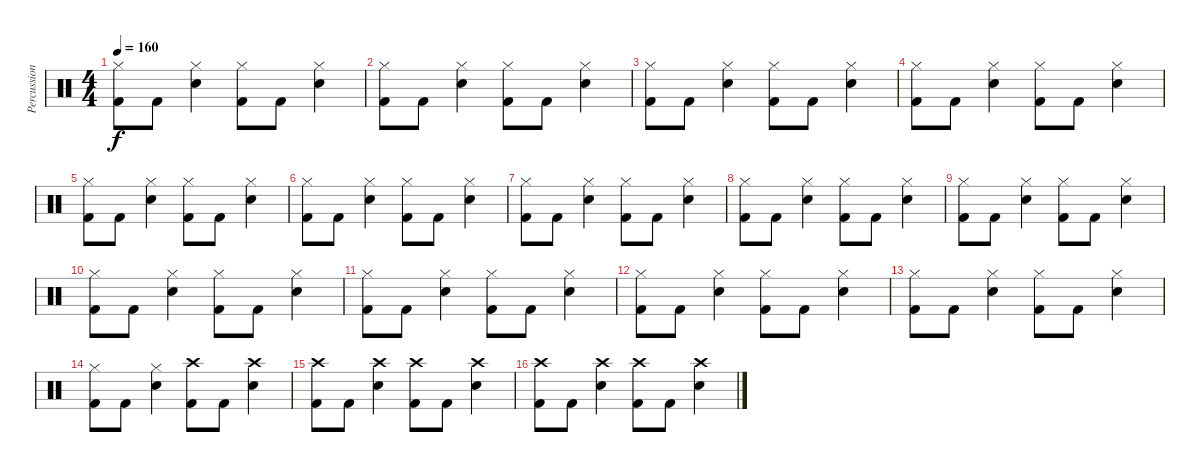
\track ("Percussioni" "Percussion") {instrument percussion}
\staff {score}
\articulation defaults
\ts (4 4)
\tempo 160
\clef neutral
\ks c
("Hi-Hat (closed)" "Kick (hit) 2").8{dy f} "Kick (hit) 2".8 ("Hi-Hat (closed)" "Snare (hit) 2").4 ("Hi-Hat (closed)" "Kick (hit) 2").8 "Kick (hit) 2".8 ("Hi-Hat (closed)" "Snare (hit) 2").4 |
("Hi-Hat (closed)" "Kick (hit) 2").8 "Kick (hit) 2".8 ("Hi-Hat (closed)" "Snare (hit) 2").4 ("Hi-Hat (closed)" "Kick (hit) 2").8 "Kick (hit) 2".8 ("Hi-Hat (closed)" "Snare (hit) 2").4 |
("Hi-Hat (closed)" "Kick (hit) 2").8 "Kick (hit) 2".8 ("Hi-Hat (closed)" "Snare (hit) 2").4 ("Hi-Hat (closed)" "Kick (hit) 2").8 "Kick (hit) 2".8 ("Hi-Hat (closed)" "Snare (hit) 2").4 |
("Hi-Hat (closed)" "Kick (hit) 2").8 "Kick (hit) 2".8 ("Hi-Hat (closed)" "Snare (hit) 2").4 ("Hi-Hat (closed)" "Kick (hit) 2").8 "Kick (hit) 2".8 ("Hi-Hat (closed)" "Snare (hit) 2").4 |
("Hi-Hat (closed)" "Kick (hit) 2").8 "Kick (hit) 2".8 ("Hi-Hat (closed)" "Snare (hit) 2").4 ("Hi-Hat (closed)" "Kick (hit) 2").8 "Kick (hit) 2".8 ("Hi-Hat (closed)" "Snare (hit) 2").4 |
("Hi-Hat (closed)" "Kick (hit) 2").8 "Kick (hit) 2".8 ("Hi-Hat (closed)" "Snare (hit) 2").4 ("Hi-Hat (closed)" "Kick (hit) 2").8 "Kick (hit) 2".8 ("Hi-Hat (closed)" "Snare (hit) 2").4 |
("Hi-Hat (closed)" "Kick (hit) 2").8 "Kick (hit) 2".8 ("Hi-Hat (closed)" "Snare (hit) 2").4 ("Hi-Hat (closed)" "Kick (hit) 2").8 "Kick (hit) 2".8 ("Hi-Hat (closed)" "Snare (hit) 2").4 |
("Hi-Hat (closed)" "Kick (hit) 2").8 "Kick (hit) 2".8 ("Hi-Hat (closed)" "Snare (hit) 2").4 ("Hi-Hat (closed)" "Kick (hit) 2").8 "Kick (hit) 2".8 ("Hi-Hat (closed)" "Snare (hit) 2").4 |
("Hi-Hat (closed)" "Kick (hit) 2").8 "Kick (hit) 2".8 ("Hi-Hat (closed)" "Snare (hit) 2").4 ("Hi-Hat (closed)" "Kick (hit) 2").8 "Kick (hit) 2".8 ("Hi-Hat (closed)" "Snare (hit) 2").4 |
("Hi-Hat (closed)" "Kick (hit) 2").8 "Kick (hit) 2".8 ("Hi-Hat (closed)" "Snare (hit) 2").4 ("Hi-Hat (closed)" "Kick (hit) 2").8 "Kick (hit) 2".8 ("Hi-Hat (closed)" "Snare (hit) 2").4 |
("Hi-Hat (closed)" "Kick (hit) 2").8 "Kick (hit) 2".8 ("Hi-Hat (closed)" "Snare (hit) 2").4 ("Hi-Hat (closed)" "Kick (hit) 2").8 "Kick (hit) 2".8 ("Hi-Hat (closed)" "Snare (hit) 2").4 |
("Hi-Hat (closed)" "Kick (hit) 2").8 "Kick (hit) 2".8 ("Hi-Hat (closed)" "Snare (hit) 2").4 ("Hi-Hat (closed)" "Kick (hit) 2").8 "Kick (hit) 2".8 ("Hi-Hat (closed)" "Snare (hit) 2").4 |
("Hi-Hat (closed)" "Kick (hit) 2").8 "Kick (hit) 2".8 ("Hi-Hat (closed)" "Snare (hit) 2").4 ("Hi-Hat (closed)" "Kick (hit) 2").8 "Kick (hit) 2".8 ("Hi-Hat (closed)" "Snare (hit) 2").4 |
("Hi-Hat (closed)" "Kick (hit) 2").8 "Kick (hit) 2".8 ("Hi-Hat (closed)" "Snare (hit) 2").4 ("Crash high (hit)" "Kick (hit) 2").8 "Kick (hit) 2".8 ("Crash high (hit)" "Snare (hit) 2").4 |
("Crash high (hit)" "Kick (hit) 2").8 "Kick (hit) 2".8 ("Crash high (hit)" "Snare (hit) 2").4 ("Crash high (hit)" "Kick (hit) 2").8 "Kick (hit) 2".8 ("Crash high (hit)" "Snare (hit) 2").4 |
("Crash high (hit)" "Kick (hit) 2").8 "Kick (hit) 2".8 ("Crash high (hit)" "Snare (hit) 2").4 ("Crash high (hit)" "Kick (hit) 2").8 "Kick (hit) 2".8 ("Crash high (hit)" "Snare (hit) 2").4
